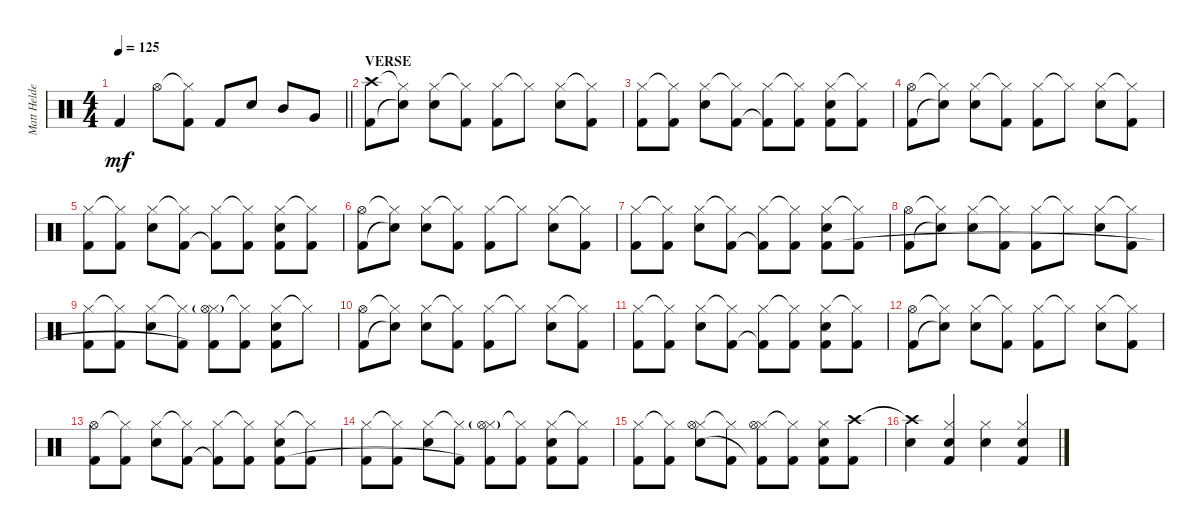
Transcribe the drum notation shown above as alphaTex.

\track ("Matt Helders" "Matt Helde") {instrument percussion}
\staff {score}
\articulation defaults
\ts (4 4)
\tempo 125
\clef neutral
\barLineRight lightlight
\ks c "Kick (hit) 2".4{dy mf} "Hi-Hat (open)".8
("Hi-Hat (closed)"{t} "Kick (hit) 2").8 "Kick (hit) 2".8 "Electric Snare (hit)".8 "Mid Tom (hit)".8 "Very Low Tom (hit)".8 |
\section ("" "VERSE")
("Crash high (hit)" "Kick (hit) 2").8 ("Hi-Hat (closed)"{t} "Snare (hit)"{t}).8 ("Hi-Hat (closed)" "Electric Snare (hit)").8 ("Hi-Hat (closed)"{t} "Kick (hit) 2").8 ("Hi-Hat (closed)" "Kick (hit) 2").8 "Hi-Hat (closed)"{t}.8 ("Hi-Hat (closed)" "Electric Snare (hit)").8 ("Hi-Hat (closed)"{t} "Kick (hit) 2").8 |
("Hi-Hat (closed)" "Kick (hit) 2").8 ("Hi-Hat (closed)"{t} "Kick (hit) 2").8 ("Hi-Hat (closed)" "Electric Snare (hit)").8 ("Hi-Hat (closed)"{t} "Kick (hit) 2").8 ("Hi-Hat (closed)" "Kick (hit) 2"{t}).8 ("Hi-Hat (closed)"{t} "Kick (hit) 2").8 ("Hi-Hat (closed)" "Electric Snare (hit)" "Kick (hit) 2").8 ("Hi-Hat (closed)"{t} "Kick (hit) 2").8 |
("Hi-Hat (open)" "Kick (hit) 2").8 ("Hi-Hat (closed)"{t} "Snare (hit)"{t}).8 ("Hi-Hat (closed)" "Electric Snare (hit)").8 ("Hi-Hat (closed)"{t} "Kick (hit) 2").8 ("Hi-Hat (closed)" "Kick (hit) 2").8 "Hi-Hat (closed)"{t}.8 ("Hi-Hat (closed)" "Electric Snare (hit)").8 ("Hi-Hat (closed)"{t} "Kick (hit) 2").8 |
("Hi-Hat (closed)" "Kick (hit) 2").8 ("Hi-Hat (closed)"{t} "Kick (hit) 2").8 ("Hi-Hat (closed)" "Electric Snare (hit)").8 ("Hi-Hat (closed)"{t} "Kick (hit) 2").8 ("Hi-Hat (closed)" "Kick (hit) 2"{t}).8 ("Hi-Hat (closed)"{t} "Kick (hit) 2").8 ("Hi-Hat (closed)" "Electric Snare (hit)" "Kick (hit) 2").8 ("Hi-Hat (closed)"{t} "Kick (hit) 2").8 |
("Hi-Hat (open)" "Kick (hit) 2").8 ("Hi-Hat (closed)"{t} "Snare (hit)"{t}).8 ("Hi-Hat (closed)" "Electric Snare (hit)").8 ("Hi-Hat (closed)"{t} "Kick (hit) 2").8 ("Hi-Hat (closed)" "Kick (hit) 2").8 "Hi-Hat (closed)"{t}.8 ("Hi-Hat (closed)" "Electric Snare (hit)").8 ("Hi-Hat (closed)"{t} "Kick (hit) 2").8 |
("Hi-Hat (closed)" "Kick (hit) 2").8 ("Hi-Hat (closed)"{t} "Kick (hit) 2").8 ("Hi-Hat (closed)" "Electric Snare (hit)").8 ("Hi-Hat (closed)"{t} "Kick (hit) 2").8 ("Hi-Hat (closed)" "Kick (hit) 2"{t}).8 ("Hi-Hat (closed)"{t} "Kick (hit) 2").8 ("Hi-Hat (closed)" "Electric Snare (hit)" "Kick (hit) 2").8 ("Hi-Hat (closed)"{t} "Kick (hit) 2").8 |
("Hi-Hat (open)" "Kick (hit) 2").8 ("Hi-Hat (closed)"{t} "Snare (hit)"{t}).8 ("Hi-Hat (closed)" "Electric Snare (hit)").8 ("Hi-Hat (closed)"{t} "Kick (hit) 2").8 ("Hi-Hat (closed)" "Kick (hit) 2").8 "Hi-Hat (closed)"{t}.8 ("Hi-Hat (closed)" "Electric Snare (hit)").8 ("Hi-Hat (closed)"{t} "Kick (hit) 2").8 |
("Hi-Hat (closed)" "Kick (hit) 2").8 ("Hi-Hat (closed)"{t} "Kick (hit) 2").8 ("Hi-Hat (closed)" "Electric Snare (hit)").8 ("Hi-Hat (closed)"{t} "Kick (hit) 2").8 ("Hi-Hat (closed)" "Hi-Hat (open)"{g} "Kick (hit) 2"{t}).8 ("Hi-Hat (closed)"{t} "Kick (hit) 2").8 ("Hi-Hat (closed)" "Electric Snare (hit)" "Kick (hit) 2").8 "Hi-Hat (closed)"{t}.8 |
("Hi-Hat (open)" "Kick (hit) 2").8 ("Hi-Hat (closed)"{t} "Snare (hit)"{t}).8 ("Hi-Hat (closed)" "Electric Snare (hit)").8 ("Hi-Hat (closed)"{t} "Kick (hit) 2").8 ("Hi-Hat (closed)" "Kick (hit) 2").8 "Hi-Hat (closed)"{t}.8 ("Hi-Hat (closed)" "Electric Snare (hit)").8 ("Hi-Hat (closed)"{t} "Kick (hit) 2").8 |
("Hi-Hat (closed)" "Kick (hit) 2").8 ("Hi-Hat (closed)"{t} "Kick (hit) 2").8 ("Hi-Hat (closed)" "Electric Snare (hit)").8 ("Hi-Hat (closed)"{t} "Kick (hit) 2").8 ("Hi-Hat (closed)" "Kick (hit) 2"{t}).8 ("Hi-Hat (closed)"{t} "Kick (hit) 2").8 ("Hi-Hat (closed)" "Electric Snare (hit)" "Kick (hit) 2").8 ("Hi-Hat (closed)"{t} "Kick (hit) 2").8 |
("Hi-Hat (open)" "Kick (hit) 2").8 ("Hi-Hat (closed)"{t} "Snare (hit)"{t}).8 ("Hi-Hat (closed)" "Electric Snare (hit)").8 ("Hi-Hat (closed)"{t} "Kick (hit) 2").8 ("Hi-Hat (closed)" "Kick (hit) 2").8 "Hi-Hat (closed)"{t}.8 ("Hi-Hat (closed)" "Electric Snare (hit)").8 ("Hi-Hat (closed)"{t} "Kick (hit) 2").8 |
("Hi-Hat (open)" "Kick (hit) 2").8 ("Hi-Hat (closed)"{t} "Kick (hit) 2").8 ("Hi-Hat (closed)" "Electric Snare (hit)").8 ("Hi-Hat (closed)"{t} "Kick (hit) 2").8 ("Hi-Hat (closed)" "Kick (hit) 2"{t}).8 ("Hi-Hat (closed)"{t} "Kick (hit) 2").8 ("Hi-Hat (closed)" "Electric Snare (hit)" "Kick (hit) 2").8 ("Hi-Hat (closed)"{t} "Kick (hit) 2").8 |
("Hi-Hat (closed)" "Kick (hit) 2").8 ("Hi-Hat (closed)"{t} "Kick (hit) 2").8 ("Hi-Hat (closed)" "Electric Snare (hit)").8 ("Hi-Hat (closed)"{t} "Kick (hit) 2").8 ("Hi-Hat (closed)" "Hi-Hat (open)"{g} "Kick (hit) 2"{t}).8 ("Hi-Hat (closed)"{t} "Kick (hit) 2").8 ("Hi-Hat (closed)" "Electric Snare (hit)" "Kick (hit) 2").8 ("Hi-Hat (closed)"{t} "Kick (hit) 2").8 |
("Hi-Hat (closed)" "Kick (hit) 2").8 ("Hi-Hat (closed)"{t} "Kick (hit) 2").8 ("Hi-Hat (closed)" "Hi-Hat (open)" "Electric Snare (hit)").8 ("Hi-Hat (closed)"{t} "Kick (hit) 2").8 ("Hi-Hat (closed)" "Hi-Hat (open)" "Kick (hit) 2"{t}).8 ("Hi-Hat (closed)"{t} "Kick (hit) 2").8 ("Hi-Hat (closed)" "Electric Snare (hit)" "Kick (hit) 2").8 ("Crash high (hit)" "Kick (hit) 2").8 |
("Crash high (hit)"{t} "Electric Snare (hit)").4 ("Hi-Hat (closed)" "Electric Snare (hit)" "Kick (hit) 2").4 ("Hi-Hat (closed)" "Electric Snare (hit)").4 ("Hi-Hat (closed)" "Electric Snare (hit)" "Kick (hit) 2").4
